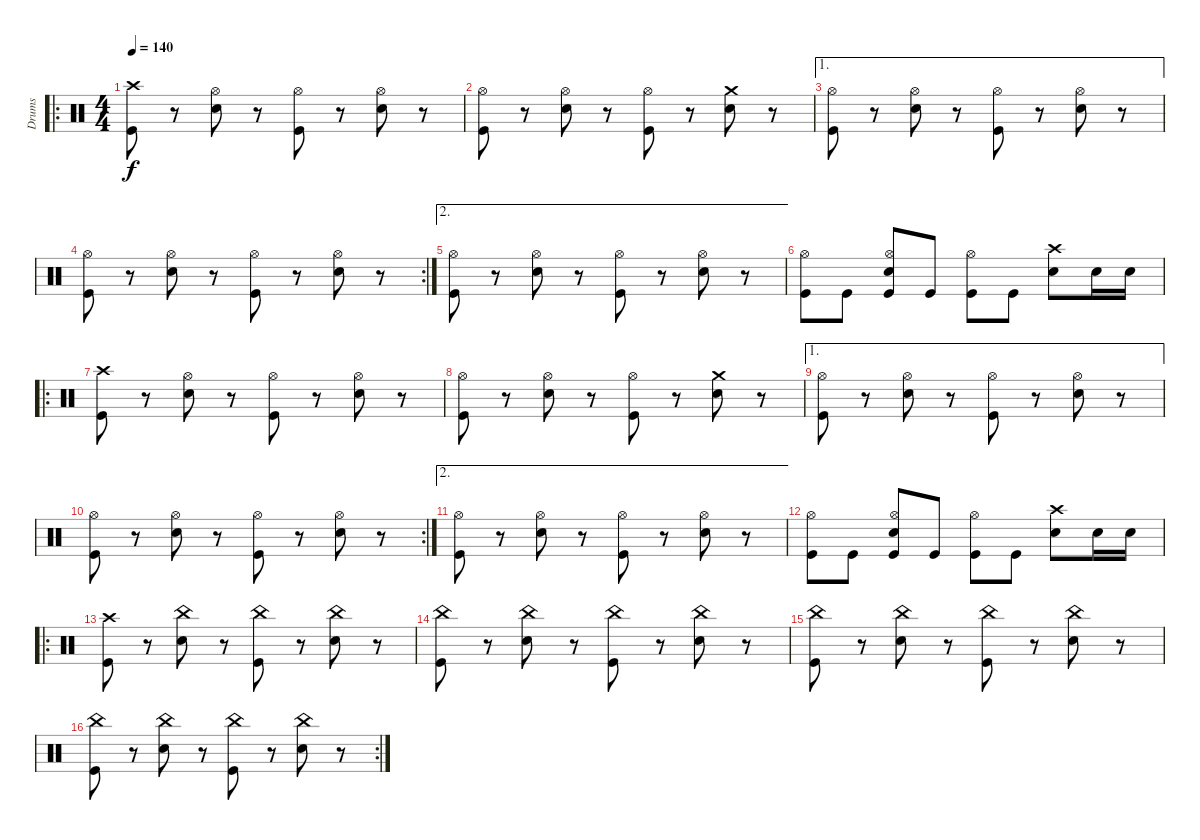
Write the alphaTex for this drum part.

\track ("Drums" "Drums") {instrument percussion}
\staff {score}
\articulation defaults
\ro
\ts (4 4)
\tempo 140
\clef neutral
\ks c
("Crash high (hit)" "Kick (hit)").8{dy f} r.8 ("Hi-Hat (open)" "Snare (hit) 2").8 r.8 ("Hi-Hat (open)" "Kick (hit)").8 r.8 ("Hi-Hat (open)" "Snare (hit) 2").8 r.8 |
("Hi-Hat (open)" "Kick (hit)").8 r.8 ("Hi-Hat (open)" "Snare (hit) 2").8 r.8 ("Hi-Hat (open)" "Kick (hit)").8 r.8 ("Crash medium (hit)" "Snare (hit) 2").8 r.8 |
\ae 1
("Hi-Hat (open)" "Kick (hit)").8 r.8 ("Hi-Hat (open)" "Snare (hit) 2").8 r.8 ("Hi-Hat (open)" "Kick (hit)").8 r.8 ("Hi-Hat (open)" "Snare (hit) 2").8 r.8 |
\rc 2
("Hi-Hat (open)" "Kick (hit)").8 r.8 ("Hi-Hat (open)" "Snare (hit) 2").8 r.8 ("Hi-Hat (open)" "Kick (hit)").8 r.8 ("Hi-Hat (open)" "Snare (hit) 2").8 r.8 |
\ae 2
("Hi-Hat (open)" "Kick (hit)").8 r.8 ("Hi-Hat (open)" "Snare (hit) 2").8 r.8 ("Hi-Hat (open)" "Kick (hit)").8 r.8 ("Hi-Hat (open)" "Snare (hit) 2").8 r.8 |
("Hi-Hat (open)" "Kick (hit)").8 "Kick (hit)".8 ("Hi-Hat (open)" "Snare (hit) 2" "Kick (hit)").8 "Kick (hit)".8 ("Hi-Hat (open)" "Kick (hit)").8 "Kick (hit)".8 ("Crash high (hit)" "Snare (hit) 2").8 "Snare (hit) 2".16 "Snare (hit) 2".16 |
\ro
("Crash high (hit)" "Kick (hit)").8 r.8 ("Hi-Hat (open)" "Snare (hit) 2").8 r.8 ("Hi-Hat (open)" "Kick (hit)").8 r.8 ("Hi-Hat (open)" "Snare (hit) 2").8 r.8 |
("Hi-Hat (open)" "Kick (hit)").8 r.8 ("Hi-Hat (open)" "Snare (hit) 2").8 r.8 ("Hi-Hat (open)" "Kick (hit)").8 r.8 ("Crash medium (hit)" "Snare (hit) 2").8 r.8 |
\ae 1
("Hi-Hat (open)" "Kick (hit)").8 r.8 ("Hi-Hat (open)" "Snare (hit) 2").8 r.8 ("Hi-Hat (open)" "Kick (hit)").8 r.8 ("Hi-Hat (open)" "Snare (hit) 2").8 r.8 |
\rc 2
("Hi-Hat (open)" "Kick (hit)").8 r.8 ("Hi-Hat (open)" "Snare (hit) 2").8 r.8 ("Hi-Hat (open)" "Kick (hit)").8 r.8 ("Hi-Hat (open)" "Snare (hit) 2").8 r.8 |
\ae 2
("Hi-Hat (open)" "Kick (hit)").8 r.8 ("Hi-Hat (open)" "Snare (hit) 2").8 r.8 ("Hi-Hat (open)" "Kick (hit)").8 r.8 ("Hi-Hat (open)" "Snare (hit) 2").8 r.8 |
("Hi-Hat (open)" "Kick (hit)").8 "Kick (hit)".8 ("Hi-Hat (open)" "Snare (hit) 2" "Kick (hit)").8 "Kick (hit)".8 ("Hi-Hat (open)" "Kick (hit)").8 "Kick (hit)".8 ("Crash high (hit)" "Snare (hit) 2").8 "Snare (hit) 2".16 "Snare (hit) 2".16 |
\ro
("Crash high (hit)" "Kick (hit)").8 r.8 ("China (hit)" "Snare (hit) 2").8 r.8 ("China (hit)" "Kick (hit)").8 r.8 ("China (hit)" "Snare (hit) 2").8 r.8 |
("China (hit)" "Kick (hit)").8 r.8 ("China (hit)" "Snare (hit) 2").8 r.8 ("China (hit)" "Kick (hit)").8 r.8 ("China (hit)" "Snare (hit) 2").8 r.8 |
("China (hit)" "Kick (hit)").8 r.8 ("China (hit)" "Snare (hit) 2").8 r.8 ("China (hit)" "Kick (hit)").8 r.8 ("China (hit)" "Snare (hit) 2").8 r.8 |
\rc 2
("China (hit)" "Kick (hit)").8 r.8 ("China (hit)" "Snare (hit) 2").8 r.8 ("China (hit)" "Kick (hit)").8 r.8 ("China (hit)" "Snare (hit) 2").8 r.8
